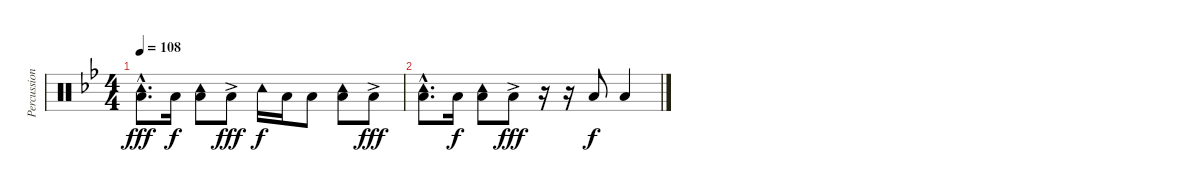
\track ("Percussion" "Percussion") {instrument percussion}
\staff {score}
\articulation defaults
\ts (4 4)
\tempo 108
\clef neutral
\ks bb
("Tambourine (hit)"{hac} "Low Tom (hit)"{hac}).8{d dy fff} "Low Tom (hit)".16{dy f} ("Tambourine (hit)" "Low Tom (hit)").8 "Low Tom (hit)"{ac}.8{dy fff} "Tambourine (hit)".16{dy f} "Low Tom (hit)".16 "Low Tom (hit)".8 ("Tambourine (hit)" "Low Tom (hit)").8 "Low Tom (hit)"{ac}.8{dy fff} |
("Tambourine (hit)"{hac} "Low Tom (hit)"{hac}).8{d} "Low Tom (hit)".16{dy f} ("Tambourine (hit)" "Low Tom (hit)").8 "Low Tom (hit)"{ac}.8{dy fff} r.16 r.16 "Low Tom (hit)".8{dy f} "Low Tom (hit)".4
